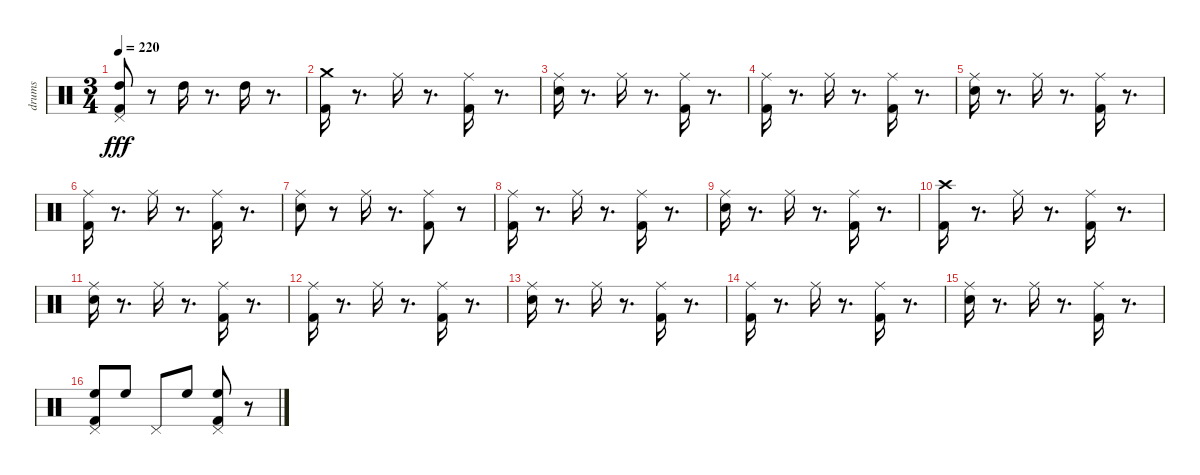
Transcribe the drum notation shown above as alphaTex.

\track ("drums" "drums") {instrument percussion}
\staff {score}
\articulation defaults
\ts (3 4)
\tempo 220
\clef neutral
\ks c
("Pedal Hi-Hat (hit)" "High Tom (hit)" "Kick (hit) 2").8{dy fff} r.8 "High Tom (hit)".16 r.8{d} "High Tom (hit)".16 r.8{d} |
("Kick (hit) 2" "Crash medium (hit)").16 r.8{d} "Ride (middle)".16 r.8{d} ("Kick (hit) 2" "Ride (middle)").16 r.8{d} |
("Snare (hit) 2" "Ride (middle)").16 r.8{d} "Ride (middle)".16 r.8{d} ("Ride (middle)" "Kick (hit) 2").16 r.8{d} |
("Kick (hit) 2" "Ride (middle)").16 r.8{d} "Ride (middle)".16 r.8{d} ("Kick (hit) 2" "Ride (middle)").16 r.8{d} |
("Ride (middle)" "Snare (hit) 2").16 r.8{d} "Ride (middle)".16 r.8{d} ("Kick (hit) 2" "Ride (middle)").16 r.8{d} |
("Ride (middle)" "Kick (hit) 2").16 r.8{d} "Ride (middle)".16 r.8{d} ("Kick (hit) 2" "Ride (middle)").16 r.8{d} |
("Snare (hit) 2" "Ride (middle)").8 r.8 "Ride (middle)".16 r.8{d} ("Kick (hit) 2" "Ride (middle)").8 r.8 |
("Ride (middle)" "Kick (hit) 2").16 r.8{d} "Ride (middle)".16 r.8{d} ("Kick (hit) 2" "Ride (middle)").16 r.8{d} |
("Ride (middle)" "Snare (hit) 2").16 r.8{d} "Ride (middle)".16 r.8{d} ("Kick (hit) 2" "Ride (middle)").16 r.8{d} |
("Crash high (hit)" "Kick (hit) 2").16 r.8{d} "Ride (middle)".16 r.8{d} ("Kick (hit) 2" "Ride (middle)").16 r.8{d} |
("Ride (middle)" "Snare (hit) 2").16 r.8{d} "Ride (middle)".16 r.8{d} ("Kick (hit) 2" "Ride (middle)").16 r.8{d} |
("Kick (hit) 2" "Ride (middle)").16 r.8{d} "Ride (middle)".16 r.8{d} ("Ride (middle)" "Kick (hit) 2").16 r.8{d} |
("Snare (hit) 2" "Ride (middle)").16 r.8{d} "Ride (middle)".16 r.8{d} ("Ride (middle)" "Kick (hit) 2").16 r.8{d} |
("Kick (hit) 2" "Ride (middle)").16 r.8{d} "Ride (middle)".16 r.8{d} ("Kick (hit) 2" "Ride (middle)").16 r.8{d} |
("Snare (hit) 2" "Ride (middle)").16 r.8{d} "Ride (middle)".16 r.8{d} ("Kick (hit) 2" "Ride (middle)").16 r.8{d} |
("Pedal Hi-Hat (hit)" "High Floor Tom (hit)" "Kick (hit) 2").8 "High Floor Tom (hit)".8 "Pedal Hi-Hat (hit)".8 "High Floor Tom (hit)".8 ("Pedal Hi-Hat (hit)" "High Floor Tom (hit)" "Kick (hit) 2").8 r.8
